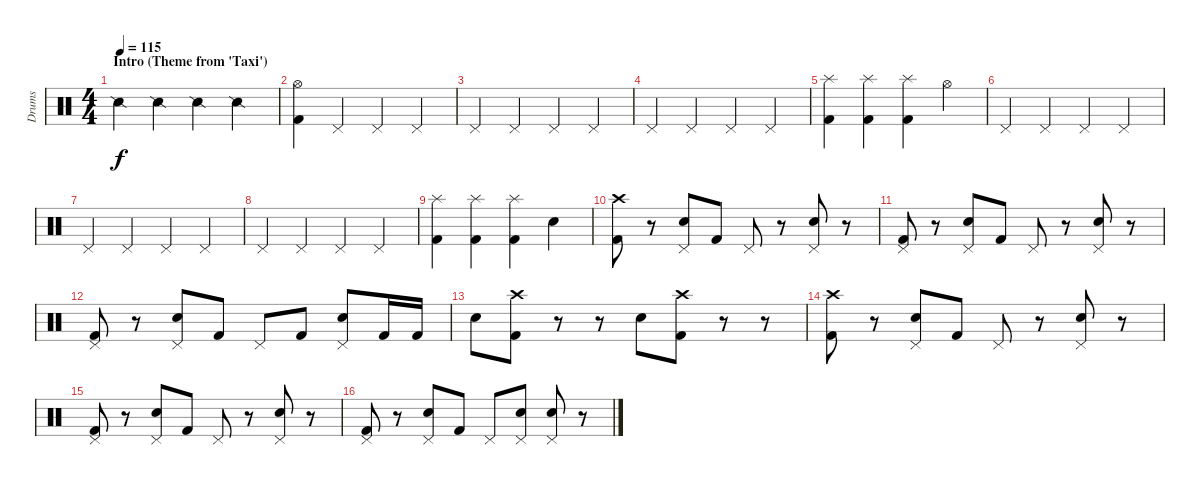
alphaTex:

\track ("Drums" "Drums") {instrument percussion}
\staff {score}
\articulation defaults
\ts (4 4)
\section ("" "Intro (Theme from 'Taxi')")
\tempo 115
\clef neutral
\ks c "Snare (side stick) 2".4{dy f} "Snare (side stick) 2".4 "Snare (side stick) 2".4 "Snare (side stick) 2".4
|
("Hi-Hat (open)" "Kick (hit) 2").4 "Pedal Hi-Hat (hit)".4 "Pedal Hi-Hat (hit)".4 "Pedal Hi-Hat (hit)".4 |
"Pedal Hi-Hat (hit)".4 "Pedal Hi-Hat (hit)".4 "Pedal Hi-Hat (hit)".4 "Pedal Hi-Hat (hit)".4 |
"Pedal Hi-Hat (hit)".4 "Pedal Hi-Hat (hit)".4 "Pedal Hi-Hat (hit)".4 "Pedal Hi-Hat (hit)".4 |
("Splash (hit)" "Kick (hit) 2").4 ("Splash (hit)" "Kick (hit) 2").4 ("Splash (hit)" "Kick (hit) 2").4 "Hi-Hat (open)".4 |
"Pedal Hi-Hat (hit)".4 "Pedal Hi-Hat (hit)".4 "Pedal Hi-Hat (hit)".4 "Pedal Hi-Hat (hit)".4 |
"Pedal Hi-Hat (hit)".4 "Pedal Hi-Hat (hit)".4 "Pedal Hi-Hat (hit)".4 "Pedal Hi-Hat (hit)".4 |
"Pedal Hi-Hat (hit)".4 "Pedal Hi-Hat (hit)".4 "Pedal Hi-Hat (hit)".4 "Pedal Hi-Hat (hit)".4 |
("Splash (hit)" "Kick (hit) 2").4 ("Splash (hit)" "Kick (hit) 2").4 ("Splash (hit)" "Kick (hit) 2").4 "Snare (hit) 2".4 |
("Crash high (hit)" "Kick (hit) 2").8 r.8 ("Pedal Hi-Hat (hit)" "Snare (hit) 2").8 "Kick (hit) 2".8 "Pedal Hi-Hat (hit)".8 r.8 ("Pedal Hi-Hat (hit)" "Snare (hit) 2").8 r.8 |
("Pedal Hi-Hat (hit)" "Kick (hit) 2").8 r.8 ("Pedal Hi-Hat (hit)" "Snare (hit) 2").8 "Kick (hit) 2".8 "Pedal Hi-Hat (hit)".8 r.8 ("Pedal Hi-Hat (hit)" "Snare (hit) 2").8 r.8 |
("Pedal Hi-Hat (hit)" "Kick (hit) 2").8 r.8 ("Pedal Hi-Hat (hit)" "Snare (hit) 2").8 "Kick (hit) 2".8 "Pedal Hi-Hat (hit)".8 "Kick (hit) 2".8 ("Pedal Hi-Hat (hit)" "Snare (hit) 2").8 "Kick (hit) 2".16 "Kick (hit) 2".16 |
"Snare (hit) 2".8 ("Crash high (hit)" "Kick (hit) 2").8 r.8 r.8 "Snare (hit) 2".8 ("Crash high (hit)" "Kick (hit) 2").8 r.8 r.8 |
("Crash high (hit)" "Kick (hit) 2").8 r.8 ("Pedal Hi-Hat (hit)" "Snare (hit) 2").8 "Kick (hit) 2".8 "Pedal Hi-Hat (hit)".8 r.8 ("Pedal Hi-Hat (hit)" "Snare (hit) 2").8 r.8 |
("Pedal Hi-Hat (hit)" "Kick (hit) 2").8 r.8 ("Pedal Hi-Hat (hit)" "Snare (hit) 2").8 "Kick (hit) 2".8 "Pedal Hi-Hat (hit)".8 r.8 ("Pedal Hi-Hat (hit)" "Snare (hit) 2").8 r.8 |
("Pedal Hi-Hat (hit)" "Kick (hit) 2").8 r.8 ("Pedal Hi-Hat (hit)" "Snare (hit) 2").8 "Kick (hit) 2".8 "Pedal Hi-Hat (hit)".8 ("Pedal Hi-Hat (hit)" "Snare (hit) 2").8 ("Pedal Hi-Hat (hit)" "Snare (hit) 2").8 r.8
